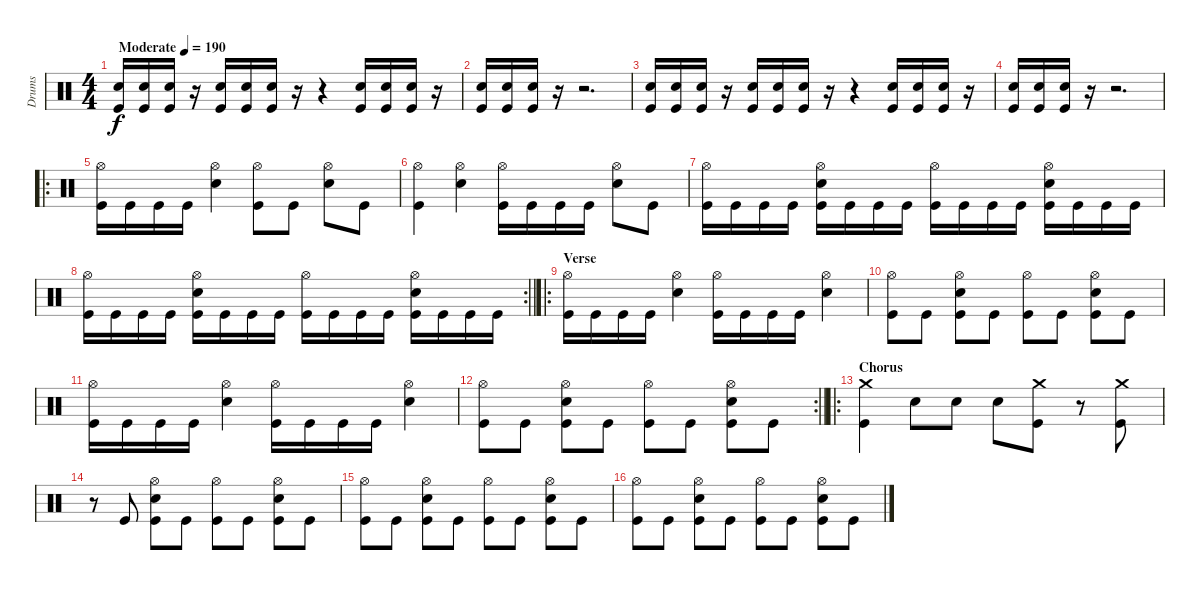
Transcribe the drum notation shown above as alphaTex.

\track ("Drums" "Drums") {instrument percussion}
\staff {score}
\articulation defaults
\ts (4 4)
\tempo (190 "Moderate")
\clef neutral
\ks c
("Snare (hit) 2" "Kick (hit)").16{dy f} ("Snare (hit) 2" "Kick (hit)").16 ("Snare (hit) 2" "Kick (hit)").16 r.16 ("Snare (hit) 2" "Kick (hit)").16 ("Snare (hit) 2" "Kick (hit)").16 ("Snare (hit) 2" "Kick (hit)").16 r.16 r.4 ("Snare (hit) 2" "Kick (hit)").16 ("Snare (hit) 2" "Kick (hit)").16 ("Snare (hit) 2" "Kick (hit)").16 r.16 |
("Snare (hit) 2" "Kick (hit)").16 ("Snare (hit) 2" "Kick (hit)").16 ("Snare (hit) 2" "Kick (hit)").16 r.16 r.2{d} |
("Snare (hit) 2" "Kick (hit)").16 ("Snare (hit) 2" "Kick (hit)").16 ("Snare (hit) 2" "Kick (hit)").16 r.16 ("Snare (hit) 2" "Kick (hit)").16 ("Snare (hit) 2" "Kick (hit)").16 ("Snare (hit) 2" "Kick (hit)").16 r.16 r.4 ("Snare (hit) 2" "Kick (hit)").16 ("Snare (hit) 2" "Kick (hit)").16 ("Snare (hit) 2" "Kick (hit)").16 r.16 |
("Snare (hit) 2" "Kick (hit)").16 ("Snare (hit) 2" "Kick (hit)").16 ("Snare (hit) 2" "Kick (hit)").16 r.16 r.2{d} |
\ro
("Hi-Hat (open)" "Kick (hit)").16 "Kick (hit)".16 "Kick (hit)".16 "Kick (hit)".16 ("Hi-Hat (open)" "Snare (hit) 2").4 ("Hi-Hat (open)" "Kick (hit)").8 "Kick (hit)".8 ("Hi-Hat (open)" "Snare (hit) 2").8 "Kick (hit)".8 |
("Hi-Hat (open)" "Kick (hit)").4 ("Hi-Hat (open)" "Snare (hit) 2").4 ("Hi-Hat (open)" "Kick (hit)").16 "Kick (hit)".16 "Kick (hit)".16 "Kick (hit)".16 ("Hi-Hat (open)" "Snare (hit) 2").8 "Kick (hit)".8 |
("Hi-Hat (open)" "Kick (hit)").16 "Kick (hit)".16 "Kick (hit)".16 "Kick (hit)".16 ("Hi-Hat (open)" "Snare (hit) 2" "Kick (hit)").16 "Kick (hit)".16 "Kick (hit)".16 "Kick (hit)".16 ("Hi-Hat (open)" "Kick (hit)").16 "Kick (hit)".16 "Kick (hit)".16 "Kick (hit)".16 ("Hi-Hat (open)" "Snare (hit) 2" "Kick (hit)").16 "Kick (hit)".16 "Kick (hit)".16 "Kick (hit)".16 |
\rc 2
\barLineRight lightlight
("Hi-Hat (open)" "Kick (hit)").16 "Kick (hit)".16 "Kick (hit)".16 "Kick (hit)".16 ("Hi-Hat (open)" "Snare (hit) 2" "Kick (hit)").16 "Kick (hit)".16 "Kick (hit)".16 "Kick (hit)".16 ("Hi-Hat (open)" "Kick (hit)").16 "Kick (hit)".16 "Kick (hit)".16 "Kick (hit)".16 ("Hi-Hat (open)" "Snare (hit) 2" "Kick (hit)").16 "Kick (hit)".16 "Kick (hit)".16 "Kick (hit)".16 |
\ro
\section ("" "Verse")
("Hi-Hat (open)" "Kick (hit)").16 "Kick (hit)".16 "Kick (hit)".16 "Kick (hit)".16 ("Hi-Hat (open)" "Snare (hit) 2").4 ("Hi-Hat (open)" "Kick (hit)").16 "Kick (hit)".16 "Kick (hit)".16 "Kick (hit)".16 ("Hi-Hat (open)" "Snare (hit) 2").4 |
("Hi-Hat (open)" "Kick (hit)").8 "Kick (hit)".8 ("Hi-Hat (open)" "Snare (hit) 2" "Kick (hit)").8 "Kick (hit)".8 ("Hi-Hat (open)" "Kick (hit)").8 "Kick (hit)".8 ("Hi-Hat (open)" "Snare (hit) 2" "Kick (hit)").8 "Kick (hit)".8 |
("Hi-Hat (open)" "Kick (hit)").16 "Kick (hit)".16 "Kick (hit)".16 "Kick (hit)".16 ("Hi-Hat (open)" "Snare (hit) 2").4 ("Hi-Hat (open)" "Kick (hit)").16 "Kick (hit)".16 "Kick (hit)".16 "Kick (hit)".16 ("Hi-Hat (open)" "Snare (hit) 2").4 |
\rc 2
\barLineRight lightlight
("Hi-Hat (open)" "Kick (hit)").8 "Kick (hit)".8 ("Hi-Hat (open)" "Snare (hit) 2" "Kick (hit)").8 "Kick (hit)".8 ("Hi-Hat (open)" "Kick (hit)").8 "Kick (hit)".8 ("Hi-Hat (open)" "Snare (hit) 2" "Kick (hit)").8 "Kick (hit)".8 |
\ro
\section ("" "Chorus")
("Crash medium (hit)" "Kick (hit)").4 "Snare (hit) 2".8 "Snare (hit) 2".8 "Snare (hit) 2".8 ("Crash medium (hit)" "Kick (hit)").8 r.8 ("Crash medium (hit)" "Kick (hit)").8 |
r.8 "Kick (hit)".8 ("Hi-Hat (open)" "Snare (hit) 2" "Kick (hit)").8 "Kick (hit)".8 ("Hi-Hat (open)" "Kick (hit)").8 "Kick (hit)".8 ("Hi-Hat (open)" "Snare (hit) 2" "Kick (hit)").8 "Kick (hit)".8 |
("Hi-Hat (open)" "Kick (hit)").8 "Kick (hit)".8 ("Hi-Hat (open)" "Snare (hit) 2" "Kick (hit)").8 "Kick (hit)".8 ("Hi-Hat (open)" "Kick (hit)").8 "Kick (hit)".8 ("Hi-Hat (open)" "Snare (hit) 2" "Kick (hit)").8 "Kick (hit)".8 |
("Hi-Hat (open)" "Kick (hit)").8 "Kick (hit)".8 ("Hi-Hat (open)" "Snare (hit) 2" "Kick (hit)").8 "Kick (hit)".8 ("Hi-Hat (open)" "Kick (hit)").8 "Kick (hit)".8 ("Hi-Hat (open)" "Snare (hit) 2" "Kick (hit)").8 "Kick (hit)".8
